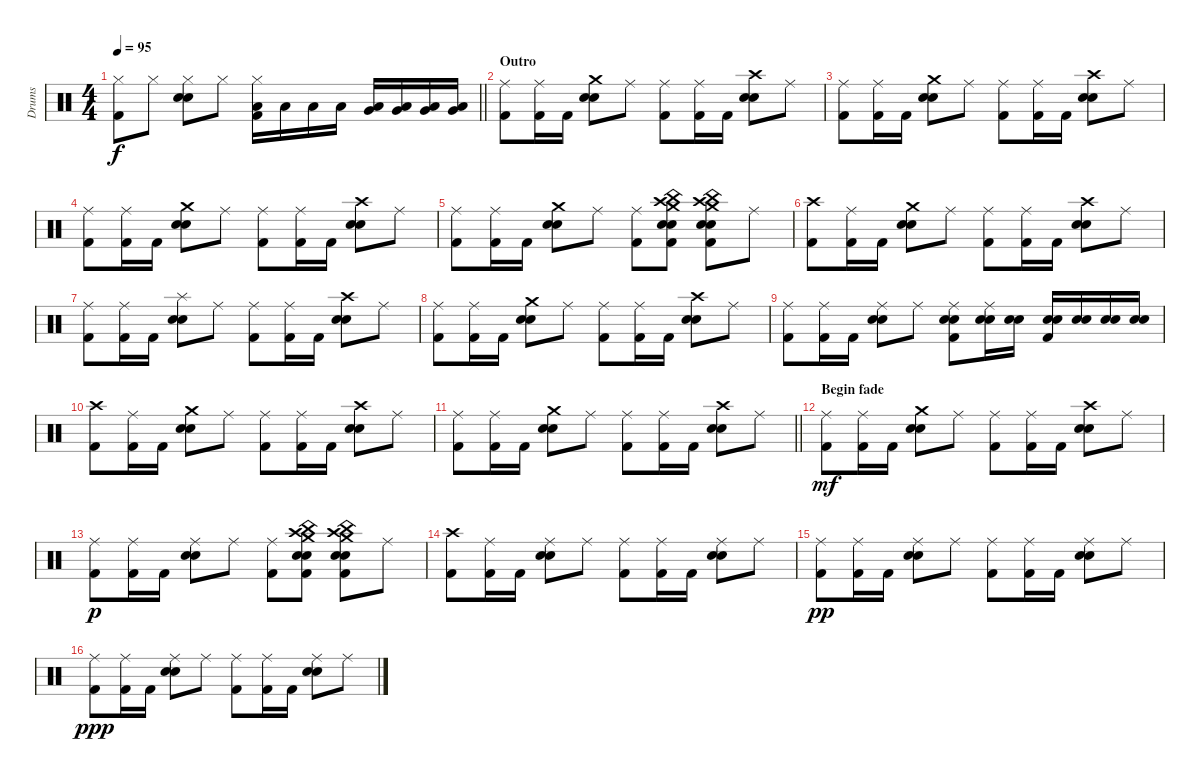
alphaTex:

\track ("Drums" "Drums") {instrument percussion}
\staff {score}
\articulation defaults
\ts (4 4)
\tempo 95
\clef neutral
\barLineRight lightlight
\ks aminor
("Hi-Hat (closed)" "Kick (hit) 2").8{dy f} "Hi-Hat (closed)".8 ("Hi-Hat (closed)" "Snare (hit) 2" "Electric Snare (hit)").8 "Hi-Hat (closed)".8 ("Hi-Hat (closed)" "Low Tom (hit)" "Kick (hit) 2").16 "Low Tom (hit)".16 "Low Tom (hit)".16 "Low Tom (hit)".16 ("Low Tom (hit)" "Very Low Tom (hit)").16 ("Low Tom (hit)" "Very Low Tom (hit)").16 ("Low Tom (hit)" "Very Low Tom (hit)").16 ("Low Tom (hit)" "Very Low Tom (hit)").16 |
\section ("" "Outro")
("Ride (middle)" "Kick (hit) 2").8 ("Ride (middle)" "Kick (hit) 2").16 "Kick (hit) 2".16 ("Crash medium (hit)" "Snare (hit) 2" "Electric Snare (hit)").8 "Ride (middle)".8 ("Ride (middle)" "Kick (hit) 2").8 ("Ride (middle)" "Kick (hit) 2").16 "Kick (hit) 2".16 ("Crash high (hit)" "Snare (hit) 2" "Electric Snare (hit)").8 "Ride (middle)".8 |
("Ride (middle)" "Kick (hit) 2").8 ("Ride (middle)" "Kick (hit) 2").16 "Kick (hit) 2".16 ("Crash medium (hit)" "Snare (hit) 2" "Electric Snare (hit)").8 "Ride (middle)".8 ("Ride (middle)" "Kick (hit) 2").8 ("Ride (middle)" "Kick (hit) 2").16 "Kick (hit) 2".16 ("Crash high (hit)" "Snare (hit) 2" "Electric Snare (hit)").8 "Ride (middle)".8 |
("Ride (middle)" "Kick (hit) 2").8 ("Ride (middle)" "Kick (hit) 2").16 "Kick (hit) 2".16 ("Crash medium (hit)" "Snare (hit) 2" "Electric Snare (hit)").8 "Ride (middle)".8 ("Ride (middle)" "Kick (hit) 2").8 ("Ride (middle)" "Kick (hit) 2").16 "Kick (hit) 2".16 ("Crash high (hit)" "Snare (hit) 2" "Electric Snare (hit)").8 "Ride (middle)".8 |
("Ride (middle)" "Kick (hit) 2").8 ("Ride (middle)" "Kick (hit) 2").16 "Kick (hit) 2".16 ("Crash medium (hit)" "Snare (hit) 2" "Electric Snare (hit)").8 "Ride (middle)".8 ("Ride (middle)" "Kick (hit) 2").8 ("Crash high (hit)" "Crash medium (hit)" "China (hit)" "Snare (hit) 2" "Electric Snare (hit)" "Kick (hit) 2").8 ("Crash high (hit)" "Crash medium (hit)" "China (hit)" "Snare (hit) 2" "Electric Snare (hit)" "Kick (hit) 2").8 "Ride (middle)".8 |
("Crash high (hit)" "Kick (hit) 2").8 ("Ride (middle)" "Kick (hit) 2").16 "Kick (hit) 2".16 ("Crash medium (hit)" "Snare (hit) 2" "Electric Snare (hit)").8 "Ride (middle)".8 ("Ride (middle)" "Kick (hit) 2").8 ("Ride (middle)" "Kick (hit) 2").16 "Kick (hit) 2".16 ("Crash high (hit)" "Snare (hit) 2" "Electric Snare (hit)").8 "Ride (middle)".8 |
("Ride (middle)" "Kick (hit) 2").8 ("Ride (middle)" "Kick (hit) 2").16 "Kick (hit) 2".16 ("Splash (hit)" "Snare (hit) 2" "Electric Snare (hit)").8 "Ride (middle)".8 ("Ride (middle)" "Kick (hit) 2").8 ("Ride (middle)" "Kick (hit) 2").16 "Kick (hit) 2".16 ("Crash high (hit)" "Snare (hit) 2" "Electric Snare (hit)").8 "Ride (middle)".8 |
("Ride (middle)" "Kick (hit) 2").8 ("Ride (middle)" "Kick (hit) 2").16 "Kick (hit) 2".16 ("Crash medium (hit)" "Snare (hit) 2" "Electric Snare (hit)").8 "Ride (middle)".8 ("Ride (middle)" "Kick (hit) 2").8 ("Ride (middle)" "Kick (hit) 2").16 "Kick (hit) 2".16 ("Crash high (hit)" "Snare (hit) 2" "Electric Snare (hit)").8 "Ride (middle)".8 |
("Ride (middle)" "Kick (hit) 2").8 ("Ride (middle)" "Kick (hit) 2").16 "Kick (hit) 2".16 ("Ride (middle)" "Snare (hit) 2" "Electric Snare (hit)").8 "Ride (middle)".8 ("Ride (middle)" "Snare (hit) 2" "Electric Snare (hit)" "Kick (hit) 2").8 ("Ride (middle)" "Snare (hit) 2" "Electric Snare (hit)").16 ("Snare (hit) 2" "Electric Snare (hit)").16 ("Snare (hit) 2" "Electric Snare (hit)" "Kick (hit) 2").16 ("Snare (hit) 2" "Electric Snare (hit)").16 ("Snare (hit) 2" "Electric Snare (hit)").16 ("Snare (hit) 2" "Electric Snare (hit)").16 |
("Crash high (hit)" "Kick (hit) 2").8 ("Ride (middle)" "Kick (hit) 2").16 "Kick (hit) 2".16 ("Crash medium (hit)" "Snare (hit) 2" "Electric Snare (hit)").8 "Ride (middle)".8 ("Ride (middle)" "Kick (hit) 2").8 ("Ride (middle)" "Kick (hit) 2").16 "Kick (hit) 2".16 ("Crash high (hit)" "Snare (hit) 2" "Electric Snare (hit)").8 "Ride (middle)".8 |
\barLineRight lightlight
("Ride (middle)" "Kick (hit) 2").8 ("Ride (middle)" "Kick (hit) 2").16 "Kick (hit) 2".16 ("Crash medium (hit)" "Snare (hit) 2" "Electric Snare (hit)").8 "Ride (middle)".8 ("Ride (middle)" "Kick (hit) 2").8 ("Ride (middle)" "Kick (hit) 2").16 "Kick (hit) 2".16 ("Crash high (hit)" "Snare (hit) 2" "Electric Snare (hit)").8 "Ride (middle)".8 |
\section ("" "Begin fade")
("Ride (middle)" "Kick (hit) 2").8{dy mf} ("Ride (middle)" "Kick (hit) 2").16 "Kick (hit) 2".16 ("Crash medium (hit)" "Snare (hit) 2" "Electric Snare (hit)").8 "Ride (middle)".8 ("Ride (middle)" "Kick (hit) 2").8 ("Ride (middle)" "Kick (hit) 2").16 "Kick (hit) 2".16 ("Crash high (hit)" "Snare (hit) 2" "Electric Snare (hit)").8 "Ride (middle)".8 |
("Ride (middle)" "Kick (hit) 2").8{dy p} ("Ride (middle)" "Kick (hit) 2").16 "Kick (hit) 2".16 ("Ride (middle)" "Snare (hit) 2" "Electric Snare (hit)").8 "Ride (middle)".8 ("Ride (middle)" "Kick (hit) 2").8 ("Crash high (hit)" "Crash medium (hit)" "China (hit)" "Snare (hit) 2" "Electric Snare (hit)" "Kick (hit) 2").8 ("Crash high (hit)" "Crash medium (hit)" "China (hit)" "Snare (hit) 2" "Electric Snare (hit)" "Kick (hit) 2").8 "Ride (middle)".8 |
("Crash high (hit)" "Kick (hit) 2").8 ("Ride (middle)" "Kick (hit) 2").16 "Kick (hit) 2".16 ("Ride (middle)" "Snare (hit) 2" "Electric Snare (hit)").8 "Ride (middle)".8 ("Ride (middle)" "Kick (hit) 2").8 ("Ride (middle)" "Kick (hit) 2").16 "Kick (hit) 2".16 ("Ride (middle)" "Snare (hit) 2" "Electric Snare (hit)").8 "Ride (middle)".8 |
("Ride (middle)" "Kick (hit) 2").8{dy pp} ("Ride (middle)" "Kick (hit) 2").16 "Kick (hit) 2".16 ("Ride (middle)" "Snare (hit) 2" "Electric Snare (hit)").8 "Ride (middle)".8 ("Ride (middle)" "Kick (hit) 2").8 ("Ride (middle)" "Kick (hit) 2").16 "Kick (hit) 2".16 ("Ride (middle)" "Snare (hit) 2" "Electric Snare (hit)").8 "Ride (middle)".8 |
("Ride (middle)" "Kick (hit) 2").8{dy ppp} ("Ride (middle)" "Kick (hit) 2").16 "Kick (hit) 2".16 ("Ride (middle)" "Snare (hit) 2" "Electric Snare (hit)").8 "Ride (middle)".8 ("Ride (middle)" "Kick (hit) 2").8 ("Ride (middle)" "Kick (hit) 2").16 "Kick (hit) 2".16 ("Ride (middle)" "Snare (hit) 2" "Electric Snare (hit)").8 "Ride (middle)".8
